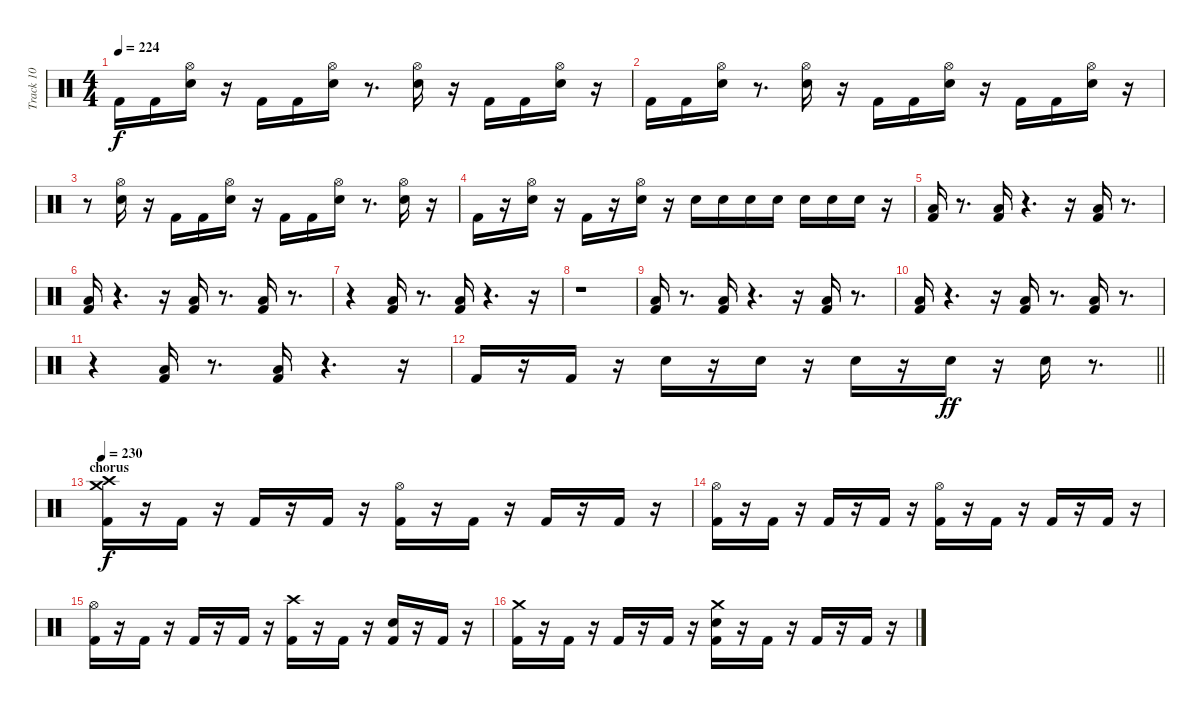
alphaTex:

\track ("Track 10" "Track 10") {instrument percussion}
\staff {score}
\articulation defaults
\ts (4 4)
\tempo 224
\clef neutral
\ks c "Kick (hit) 2".16{dy f} "Kick (hit) 2".16
("Snare (hit) 2" "Hi-Hat (open)").16 r.16 "Kick (hit) 2".16 "Kick (hit) 2".16 ("Snare (hit) 2" "Hi-Hat (open)").16 r.8{d} ("Snare (hit) 2" "Hi-Hat (open)").16 r.16 "Kick (hit) 2".16 "Kick (hit) 2".16 ("Snare (hit) 2" "Hi-Hat (open)").16 r.16 |
"Kick (hit) 2".16 "Kick (hit) 2".16 ("Snare (hit) 2" "Hi-Hat (open)").16 r.8{d} ("Snare (hit) 2" "Hi-Hat (open)").16 r.16 "Kick (hit) 2".16 "Kick (hit) 2".16 ("Snare (hit) 2" "Hi-Hat (open)").16 r.16 "Kick (hit) 2".16 "Kick (hit) 2".16 ("Snare (hit) 2" "Hi-Hat (open)").16 r.16 |
r.8 ("Snare (hit) 2" "Hi-Hat (open)").16 r.16 "Kick (hit) 2".16 "Kick (hit) 2".16 ("Snare (hit) 2" "Hi-Hat (open)").16 r.16 "Kick (hit) 2".16 "Kick (hit) 2".16 ("Snare (hit) 2" "Hi-Hat (open)").16 r.8{d} ("Snare (hit) 2" "Hi-Hat (open)").16 r.16 |
"Kick (hit) 2".16 r.16 ("Snare (hit) 2" "Hi-Hat (open)").16 r.16 "Kick (hit) 2".16 r.16 ("Snare (hit) 2" "Hi-Hat (open)").16 r.16 "Snare (hit) 2".16 "Snare (hit) 2".16 "Snare (hit) 2".16 "Snare (hit) 2".16 "Snare (hit) 2".16 "Snare (hit) 2".16 "Snare (hit) 2".16 r.16 |
("Kick (hit) 2" "Low Floor Tom (hit)").16 r.8{d} ("Kick (hit) 2" "Low Floor Tom (hit)").16 r.4{d} r.16 ("Kick (hit) 2" "Low Floor Tom (hit)").16 r.8{d} |
("Kick (hit) 2" "Low Floor Tom (hit)").16 r.4{d} r.16 ("Kick (hit) 2" "Low Floor Tom (hit)").16 r.8{d} ("Kick (hit) 2" "Low Floor Tom (hit)").16 r.8{d} |
r.4 ("Kick (hit) 2" "Low Floor Tom (hit)").16 r.8{d} ("Kick (hit) 2" "Low Floor Tom (hit)").16 r.4{d} r.16 |
r.1 |
("Kick (hit) 2" "Low Floor Tom (hit)").16 r.8{d} ("Kick (hit) 2" "Low Floor Tom (hit)").16 r.4{d} r.16 ("Kick (hit) 2" "Low Floor Tom (hit)").16 r.8{d} |
("Kick (hit) 2" "Low Floor Tom (hit)").16 r.4{d} r.16 ("Kick (hit) 2" "Low Floor Tom (hit)").16 r.8{d} ("Kick (hit) 2" "Low Floor Tom (hit)").16 r.8{d} |
r.4 ("Kick (hit) 2" "Low Floor Tom (hit)").16 r.8{d} ("Kick (hit) 2" "Low Floor Tom (hit)").16 r.4{d} r.16 |
\barLineRight lightlight "Kick (hit) 2".16
r.16 "Kick (hit) 2".16 r.16 "Snare (hit) 2".16 r.16 "Snare (hit) 2".16 r.16 "Snare (hit) 2".16 r.16 "Snare (hit) 2".16{dy ff} r.16 "Snare (hit) 2".16 r.8{d} |
\section ("" "chorus")
\tempo 230
("Kick (hit) 2" "Crash high (hit)" "Crash medium (hit)").16{dy f} r.16 "Kick (hit) 2".16 r.16 "Kick (hit) 2".16 r.16 "Kick (hit) 2".16 r.16 ("Kick (hit) 2" "Hi-Hat (open)").16 r.16 "Kick (hit) 2".16 r.16 "Kick (hit) 2".16 r.16 "Kick (hit) 2".16 r.16 |
("Kick (hit) 2" "Hi-Hat (open)").16 r.16 "Kick (hit) 2".16 r.16 "Kick (hit) 2".16 r.16 "Kick (hit) 2".16 r.16 ("Kick (hit) 2" "Hi-Hat (open)").16 r.16 "Kick (hit) 2".16 r.16 "Kick (hit) 2".16 r.16 "Kick (hit) 2".16 r.16 |
("Kick (hit) 2" "Hi-Hat (open)").16 r.16 "Kick (hit) 2".16 r.16 "Kick (hit) 2".16 r.16 "Kick (hit) 2".16 r.16 ("Kick (hit) 2" "Crash high (hit)").16 r.16 "Kick (hit) 2".16 r.16 ("Kick (hit) 2" "Snare (hit) 2").16 r.16 "Kick (hit) 2".16 r.16 |
("Kick (hit) 2" "Crash medium (hit)").16 r.16 "Kick (hit) 2".16 r.16 "Kick (hit) 2".16 r.16 "Kick (hit) 2".16 r.16 ("Kick (hit) 2" "Snare (hit) 2" "Crash medium (hit)").16 r.16 "Kick (hit) 2".16 r.16 "Kick (hit) 2".16 r.16 "Kick (hit) 2".16 r.16
